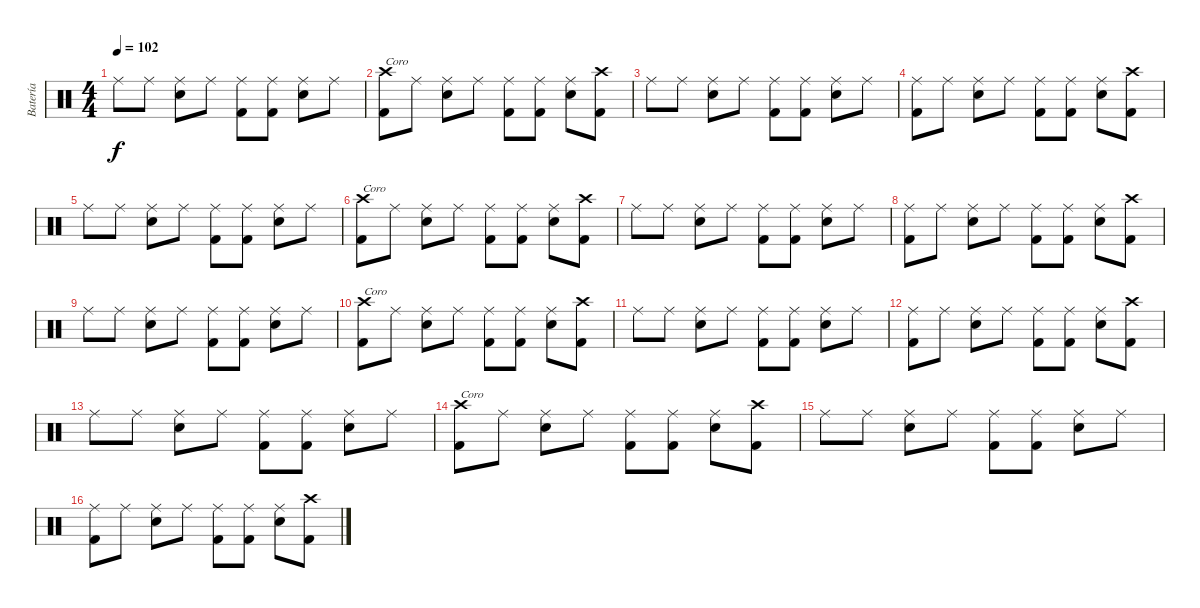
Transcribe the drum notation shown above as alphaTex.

\track ("Batería" "Batería") {instrument percussion}
\staff {score}
\articulation defaults
\ts (4 4)
\tempo 102
\clef neutral
\ks c "Ride (middle)".8{dy f} "Ride (middle)".8
("Ride (middle)" "Snare (hit) 2").8 "Ride (middle)".8 ("Ride (middle)" "Kick (hit) 2").8 ("Ride (middle)" "Kick (hit) 2").8 ("Ride (middle)" "Snare (hit) 2").8 "Ride (middle)".8 |
("Crash high (hit)" "Kick (hit) 2").8{txt "Coro"} "Ride (middle)".8 ("Ride (middle)" "Snare (hit) 2").8 "Ride (middle)".8 ("Ride (middle)" "Kick (hit) 2").8 ("Ride (middle)" "Kick (hit) 2").8 ("Ride (middle)" "Snare (hit) 2").8 ("Crash high (hit)" "Kick (hit) 2").8 |
"Ride (middle)".8 "Ride (middle)".8 ("Ride (middle)" "Snare (hit) 2").8 "Ride (middle)".8 ("Ride (middle)" "Kick (hit) 2").8 ("Ride (middle)" "Kick (hit) 2").8 ("Ride (middle)" "Snare (hit) 2").8 "Ride (middle)".8 |
("Ride (middle)" "Kick (hit) 2").8 "Ride (middle)".8 ("Ride (middle)" "Snare (hit) 2").8 "Ride (middle)".8 ("Ride (middle)" "Kick (hit) 2").8 ("Ride (middle)" "Kick (hit) 2").8 ("Ride (middle)" "Snare (hit) 2").8 ("Crash high (hit)" "Kick (hit) 2").8 |
"Ride (middle)".8 "Ride (middle)".8 ("Ride (middle)" "Snare (hit) 2").8 "Ride (middle)".8 ("Ride (middle)" "Kick (hit) 2").8 ("Ride (middle)" "Kick (hit) 2").8 ("Ride (middle)" "Snare (hit) 2").8 "Ride (middle)".8 |
("Crash high (hit)" "Kick (hit) 2").8{txt "Coro"} "Ride (middle)".8 ("Ride (middle)" "Snare (hit) 2").8 "Ride (middle)".8 ("Ride (middle)" "Kick (hit) 2").8 ("Ride (middle)" "Kick (hit) 2").8 ("Ride (middle)" "Snare (hit) 2").8 ("Crash high (hit)" "Kick (hit) 2").8 |
"Ride (middle)".8 "Ride (middle)".8 ("Ride (middle)" "Snare (hit) 2").8 "Ride (middle)".8 ("Ride (middle)" "Kick (hit) 2").8 ("Ride (middle)" "Kick (hit) 2").8 ("Ride (middle)" "Snare (hit) 2").8 "Ride (middle)".8 |
("Ride (middle)" "Kick (hit) 2").8 "Ride (middle)".8 ("Ride (middle)" "Snare (hit) 2").8 "Ride (middle)".8 ("Ride (middle)" "Kick (hit) 2").8 ("Ride (middle)" "Kick (hit) 2").8 ("Ride (middle)" "Snare (hit) 2").8 ("Crash high (hit)" "Kick (hit) 2").8 |
"Ride (middle)".8 "Ride (middle)".8 ("Ride (middle)" "Snare (hit) 2").8 "Ride (middle)".8 ("Ride (middle)" "Kick (hit) 2").8 ("Ride (middle)" "Kick (hit) 2").8 ("Ride (middle)" "Snare (hit) 2").8 "Ride (middle)".8 |
("Crash high (hit)" "Kick (hit) 2").8{txt "Coro"} "Ride (middle)".8 ("Ride (middle)" "Snare (hit) 2").8 "Ride (middle)".8 ("Ride (middle)" "Kick (hit) 2").8 ("Ride (middle)" "Kick (hit) 2").8 ("Ride (middle)" "Snare (hit) 2").8 ("Crash high (hit)" "Kick (hit) 2").8 |
"Ride (middle)".8 "Ride (middle)".8 ("Ride (middle)" "Snare (hit) 2").8 "Ride (middle)".8 ("Ride (middle)" "Kick (hit) 2").8 ("Ride (middle)" "Kick (hit) 2").8 ("Ride (middle)" "Snare (hit) 2").8 "Ride (middle)".8 |
("Ride (middle)" "Kick (hit) 2").8 "Ride (middle)".8 ("Ride (middle)" "Snare (hit) 2").8 "Ride (middle)".8 ("Ride (middle)" "Kick (hit) 2").8 ("Ride (middle)" "Kick (hit) 2").8 ("Ride (middle)" "Snare (hit) 2").8 ("Crash high (hit)" "Kick (hit) 2").8 |
"Ride (middle)".8 "Ride (middle)".8 ("Ride (middle)" "Snare (hit) 2").8 "Ride (middle)".8 ("Ride (middle)" "Kick (hit) 2").8 ("Ride (middle)" "Kick (hit) 2").8 ("Ride (middle)" "Snare (hit) 2").8 "Ride (middle)".8 |
("Crash high (hit)" "Kick (hit) 2").8{txt "Coro"} "Ride (middle)".8 ("Ride (middle)" "Snare (hit) 2").8 "Ride (middle)".8 ("Ride (middle)" "Kick (hit) 2").8 ("Ride (middle)" "Kick (hit) 2").8 ("Ride (middle)" "Snare (hit) 2").8 ("Crash high (hit)" "Kick (hit) 2").8 |
"Ride (middle)".8 "Ride (middle)".8 ("Ride (middle)" "Snare (hit) 2").8 "Ride (middle)".8 ("Ride (middle)" "Kick (hit) 2").8 ("Ride (middle)" "Kick (hit) 2").8 ("Ride (middle)" "Snare (hit) 2").8 "Ride (middle)".8 |
("Ride (middle)" "Kick (hit) 2").8 "Ride (middle)".8 ("Ride (middle)" "Snare (hit) 2").8 "Ride (middle)".8 ("Ride (middle)" "Kick (hit) 2").8 ("Ride (middle)" "Kick (hit) 2").8 ("Ride (middle)" "Snare (hit) 2").8 ("Crash high (hit)" "Kick (hit) 2").8
